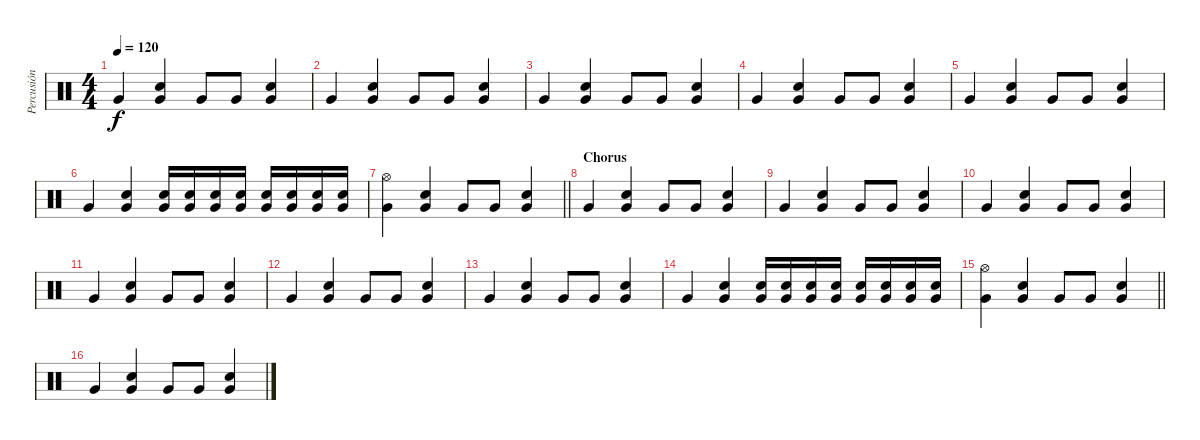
\track ("Percusión" "Percusión") {instrument percussion}
\staff {score}
\articulation defaults
\ts (4 4)
\tempo 120
\clef neutral
\ks c "Very Low Tom (hit)".4{dy f}
("Electric Snare (hit)" "Very Low Tom (hit)").4 "Very Low Tom (hit)".8 "Very Low Tom (hit)".8 ("Electric Snare (hit)" "Very Low Tom (hit)").4 |
"Very Low Tom (hit)".4 ("Electric Snare (hit)" "Very Low Tom (hit)").4 "Very Low Tom (hit)".8 "Very Low Tom (hit)".8 ("Electric Snare (hit)" "Very Low Tom (hit)").4 |
"Very Low Tom (hit)".4 ("Electric Snare (hit)" "Very Low Tom (hit)").4 "Very Low Tom (hit)".8 "Very Low Tom (hit)".8 ("Electric Snare (hit)" "Very Low Tom (hit)").4 |
"Very Low Tom (hit)".4 ("Electric Snare (hit)" "Very Low Tom (hit)").4 "Very Low Tom (hit)".8 "Very Low Tom (hit)".8 ("Electric Snare (hit)" "Very Low Tom (hit)").4 |
"Very Low Tom (hit)".4 ("Electric Snare (hit)" "Very Low Tom (hit)").4 "Very Low Tom (hit)".8 "Very Low Tom (hit)".8 ("Electric Snare (hit)" "Very Low Tom (hit)").4 |
"Very Low Tom (hit)".4 ("Electric Snare (hit)" "Very Low Tom (hit)").4 ("Electric Snare (hit)" "Very Low Tom (hit)").16 ("Electric Snare (hit)" "Very Low Tom (hit)").16 ("Electric Snare (hit)" "Very Low Tom (hit)").16 ("Electric Snare (hit)" "Very Low Tom (hit)").16 ("Electric Snare (hit)" "Very Low Tom (hit)").16 ("Electric Snare (hit)" "Very Low Tom (hit)").16 ("Electric Snare (hit)" "Very Low Tom (hit)").16 ("Electric Snare (hit)" "Very Low Tom (hit)").16 |
\barLineRight lightlight
("Very Low Tom (hit)" "Hi-Hat (open)").4 ("Electric Snare (hit)" "Very Low Tom (hit)").4 "Very Low Tom (hit)".8 "Very Low Tom (hit)".8 ("Electric Snare (hit)" "Very Low Tom (hit)").4 |
\section ("" "Chorus")
"Very Low Tom (hit)".4 ("Electric Snare (hit)" "Very Low Tom (hit)").4 "Very Low Tom (hit)".8 "Very Low Tom (hit)".8 ("Electric Snare (hit)" "Very Low Tom (hit)").4 |
"Very Low Tom (hit)".4 ("Electric Snare (hit)" "Very Low Tom (hit)").4 "Very Low Tom (hit)".8 "Very Low Tom (hit)".8 ("Electric Snare (hit)" "Very Low Tom (hit)").4 |
"Very Low Tom (hit)".4 ("Electric Snare (hit)" "Very Low Tom (hit)").4 "Very Low Tom (hit)".8 "Very Low Tom (hit)".8 ("Electric Snare (hit)" "Very Low Tom (hit)").4 |
"Very Low Tom (hit)".4 ("Electric Snare (hit)" "Very Low Tom (hit)").4 "Very Low Tom (hit)".8 "Very Low Tom (hit)".8 ("Electric Snare (hit)" "Very Low Tom (hit)").4 |
"Very Low Tom (hit)".4 ("Electric Snare (hit)" "Very Low Tom (hit)").4 "Very Low Tom (hit)".8 "Very Low Tom (hit)".8 ("Electric Snare (hit)" "Very Low Tom (hit)").4 |
"Very Low Tom (hit)".4 ("Electric Snare (hit)" "Very Low Tom (hit)").4 "Very Low Tom (hit)".8 "Very Low Tom (hit)".8 ("Electric Snare (hit)" "Very Low Tom (hit)").4 |
"Very Low Tom (hit)".4 ("Electric Snare (hit)" "Very Low Tom (hit)").4 ("Electric Snare (hit)" "Very Low Tom (hit)").16 ("Electric Snare (hit)" "Very Low Tom (hit)").16 ("Electric Snare (hit)" "Very Low Tom (hit)").16 ("Electric Snare (hit)" "Very Low Tom (hit)").16 ("Electric Snare (hit)" "Very Low Tom (hit)").16 ("Electric Snare (hit)" "Very Low Tom (hit)").16 ("Electric Snare (hit)" "Very Low Tom (hit)").16 ("Electric Snare (hit)" "Very Low Tom (hit)").16 |
\barLineRight lightlight
("Very Low Tom (hit)" "Hi-Hat (open)").4 ("Electric Snare (hit)" "Very Low Tom (hit)").4 "Very Low Tom (hit)".8 "Very Low Tom (hit)".8 ("Electric Snare (hit)" "Very Low Tom (hit)").4 |
"Very Low Tom (hit)".4 ("Electric Snare (hit)" "Very Low Tom (hit)").4 "Very Low Tom (hit)".8 "Very Low Tom (hit)".8 ("Electric Snare (hit)" "Very Low Tom (hit)").4
